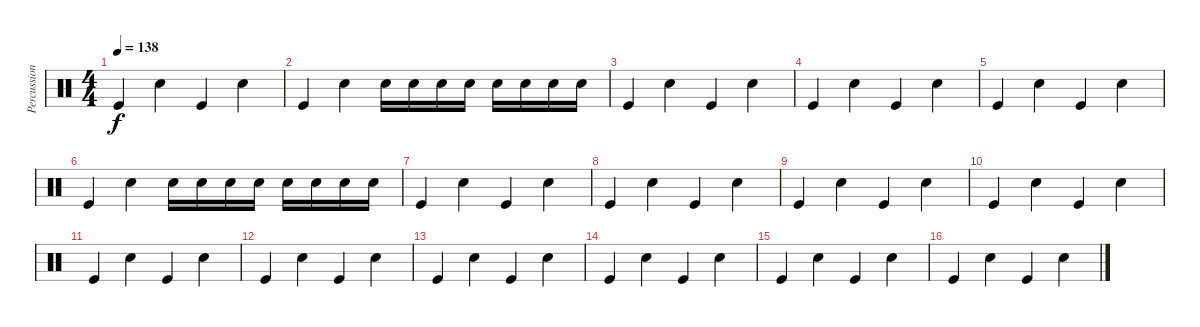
\track ("Percussion" "Percussion") {instrument percussion}
\staff {score}
\articulation defaults
\ts (4 4)
\tempo 138
\clef neutral
\ks c "Kick (hit)".4{dy f} "Snare (hit) 2".4 "Kick (hit)".4 "Snare (hit) 2".4
|
"Kick (hit)".4 "Snare (hit) 2".4 "Snare (hit) 2".16 "Snare (hit) 2".16 "Snare (hit) 2".16 "Snare (hit) 2".16 "Snare (hit) 2".16 "Snare (hit) 2".16 "Snare (hit) 2".16 "Snare (hit) 2".16 |
"Kick (hit)".4 "Snare (hit) 2".4 "Kick (hit)".4 "Snare (hit) 2".4 |
"Kick (hit)".4 "Snare (hit) 2".4 "Kick (hit)".4 "Snare (hit) 2".4 |
"Kick (hit)".4 "Snare (hit) 2".4 "Kick (hit)".4 "Snare (hit) 2".4 |
"Kick (hit)".4 "Snare (hit) 2".4 "Snare (hit) 2".16 "Snare (hit) 2".16 "Snare (hit) 2".16 "Snare (hit) 2".16 "Snare (hit) 2".16 "Snare (hit) 2".16 "Snare (hit) 2".16 "Snare (hit) 2".16 |
"Kick (hit)".4 "Snare (hit) 2".4 "Kick (hit)".4 "Snare (hit) 2".4 |
"Kick (hit)".4 "Snare (hit) 2".4 "Kick (hit)".4 "Snare (hit) 2".4 |
"Kick (hit)".4 "Snare (hit) 2".4 "Kick (hit)".4 "Snare (hit) 2".4 |
"Kick (hit)".4 "Snare (hit) 2".4 "Kick (hit)".4 "Snare (hit) 2".4 |
"Kick (hit)".4 "Snare (hit) 2".4 "Kick (hit)".4 "Snare (hit) 2".4 |
"Kick (hit)".4 "Snare (hit) 2".4 "Kick (hit)".4 "Snare (hit) 2".4 |
"Kick (hit)".4 "Snare (hit) 2".4 "Kick (hit)".4 "Snare (hit) 2".4 |
"Kick (hit)".4 "Snare (hit) 2".4 "Kick (hit)".4 "Snare (hit) 2".4 |
"Kick (hit)".4 "Snare (hit) 2".4 "Kick (hit)".4 "Snare (hit) 2".4 |
"Kick (hit)".4 "Snare (hit) 2".4 "Kick (hit)".4 "Snare (hit) 2".4
